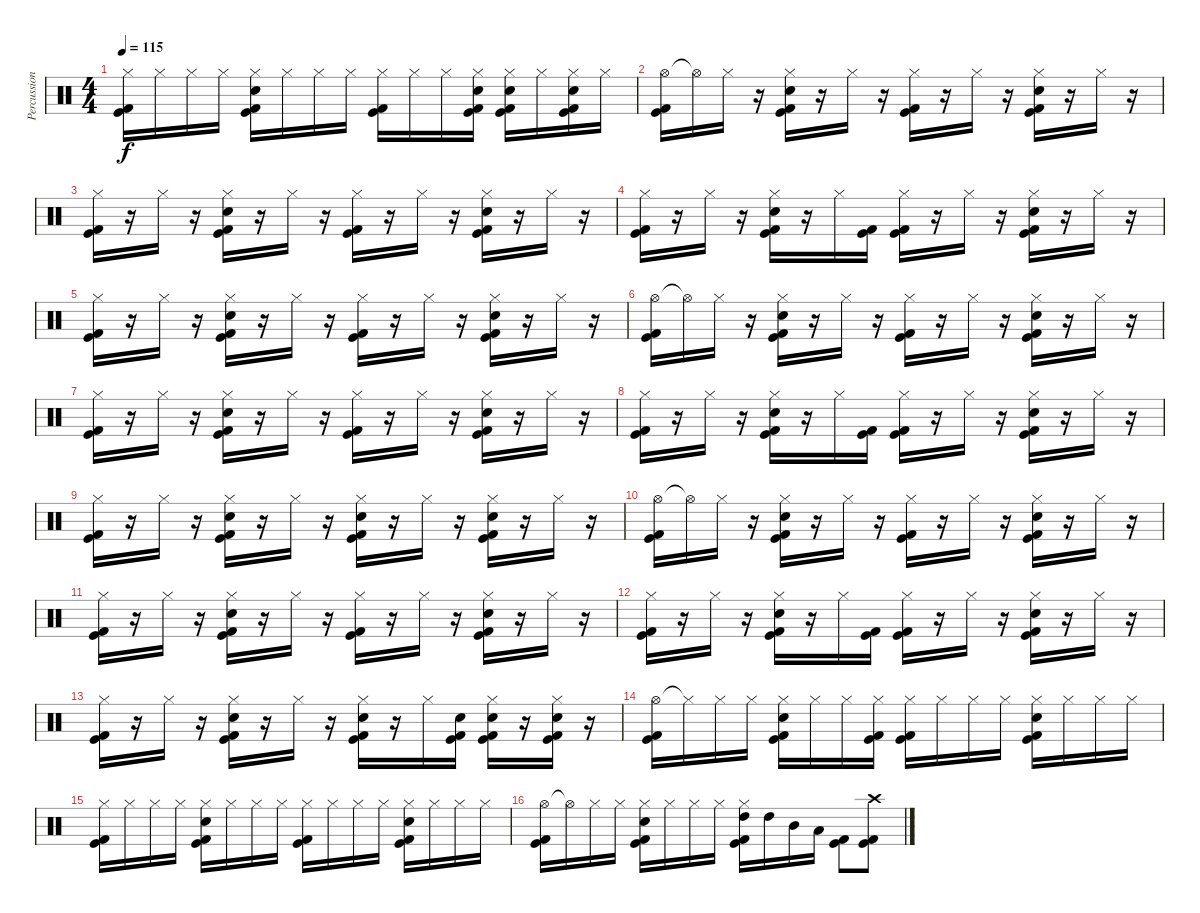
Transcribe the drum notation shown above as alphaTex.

\track ("Percussions" "Percussion") {instrument percussion}
\staff {score}
\articulation defaults
\ts (4 4)
\tempo 115
\clef neutral
\ks c
("Hi-Hat (closed)" "Kick (hit) 2" "Kick (hit)").16{dy f} "Hi-Hat (closed)".16 "Hi-Hat (closed)".16 "Hi-Hat (closed)".16 ("Hi-Hat (closed)" "Kick (hit) 2" "Snare (hit) 2" "Kick (hit)").16 "Hi-Hat (closed)".16 "Hi-Hat (closed)".16 "Hi-Hat (closed)".16 ("Hi-Hat (closed)" "Kick (hit) 2" "Kick (hit)").16 "Hi-Hat (closed)".16 "Hi-Hat (closed)".16 ("Hi-Hat (closed)" "Snare (hit) 2" "Kick (hit)" "Kick (hit) 2").16 ("Hi-Hat (closed)" "Snare (hit) 2" "Kick (hit)" "Kick (hit) 2").16 "Hi-Hat (closed)".16 ("Hi-Hat (closed)" "Snare (hit) 2" "Kick (hit)" "Kick (hit) 2").16 "Hi-Hat (closed)".16 |
("Hi-Hat (open)" "Kick (hit) 2" "Kick (hit)").16 "Hi-Hat (open)"{t}.16 "Hi-Hat (closed)".16 r.16 ("Hi-Hat (closed)" "Kick (hit) 2" "Snare (hit) 2" "Kick (hit)").16 r.16 "Hi-Hat (closed)".16 r.16 ("Hi-Hat (closed)" "Kick (hit) 2" "Kick (hit)").16 r.16 "Hi-Hat (closed)".16 r.16 ("Hi-Hat (closed)" "Kick (hit) 2" "Snare (hit) 2" "Kick (hit)").16 r.16 "Hi-Hat (closed)".16 r.16 |
("Hi-Hat (closed)" "Kick (hit) 2" "Kick (hit)").16 r.16 "Hi-Hat (closed)".16 r.16 ("Hi-Hat (closed)" "Kick (hit) 2" "Snare (hit) 2" "Kick (hit)").16 r.16 "Hi-Hat (closed)".16 r.16 ("Hi-Hat (closed)" "Kick (hit) 2" "Kick (hit)").16 r.16 "Hi-Hat (closed)".16 r.16 ("Hi-Hat (closed)" "Kick (hit) 2" "Snare (hit) 2" "Kick (hit)").16 r.16 "Hi-Hat (closed)".16 r.16 |
("Hi-Hat (closed)" "Kick (hit) 2" "Kick (hit)").16 r.16 "Hi-Hat (closed)".16 r.16 ("Hi-Hat (closed)" "Kick (hit) 2" "Snare (hit) 2" "Kick (hit)").16 r.16 "Hi-Hat (closed)".16 ("Kick (hit) 2" "Kick (hit)").16 ("Hi-Hat (closed)" "Kick (hit) 2" "Kick (hit)").16 r.16 "Hi-Hat (closed)".16 r.16 ("Hi-Hat (closed)" "Kick (hit) 2" "Snare (hit) 2" "Kick (hit)").16 r.16 "Hi-Hat (closed)".16 r.16 |
("Hi-Hat (closed)" "Kick (hit) 2" "Kick (hit)").16 r.16 "Hi-Hat (closed)".16 r.16 ("Hi-Hat (closed)" "Kick (hit) 2" "Snare (hit) 2" "Kick (hit)").16 r.16 "Hi-Hat (closed)".16 r.16 ("Hi-Hat (closed)" "Kick (hit) 2" "Kick (hit)").16 r.16 "Hi-Hat (closed)".16 r.16 ("Hi-Hat (closed)" "Kick (hit) 2" "Snare (hit) 2" "Kick (hit)").16 r.16 "Hi-Hat (closed)".16 r.16 |
("Hi-Hat (open)" "Kick (hit) 2" "Kick (hit)").16 "Hi-Hat (open)"{t}.16 "Hi-Hat (closed)".16 r.16 ("Hi-Hat (closed)" "Kick (hit) 2" "Snare (hit) 2" "Kick (hit)").16 r.16 "Hi-Hat (closed)".16 r.16 ("Hi-Hat (closed)" "Kick (hit) 2" "Kick (hit)").16 r.16 "Hi-Hat (closed)".16 r.16 ("Hi-Hat (closed)" "Kick (hit) 2" "Snare (hit) 2" "Kick (hit)").16 r.16 "Hi-Hat (closed)".16 r.16 |
("Hi-Hat (closed)" "Kick (hit) 2" "Kick (hit)").16 r.16 "Hi-Hat (closed)".16 r.16 ("Hi-Hat (closed)" "Kick (hit) 2" "Snare (hit) 2" "Kick (hit)").16 r.16 "Hi-Hat (closed)".16 r.16 ("Hi-Hat (closed)" "Kick (hit) 2" "Kick (hit)").16 r.16 "Hi-Hat (closed)".16 r.16 ("Hi-Hat (closed)" "Kick (hit) 2" "Snare (hit) 2" "Kick (hit)").16 r.16 "Hi-Hat (closed)".16 r.16 |
("Hi-Hat (closed)" "Kick (hit) 2" "Kick (hit)").16 r.16 "Hi-Hat (closed)".16 r.16 ("Hi-Hat (closed)" "Kick (hit) 2" "Snare (hit) 2" "Kick (hit)").16 r.16 "Hi-Hat (closed)".16 ("Kick (hit) 2" "Kick (hit)").16 ("Hi-Hat (closed)" "Kick (hit) 2" "Kick (hit)").16 r.16 "Hi-Hat (closed)".16 r.16 ("Hi-Hat (closed)" "Kick (hit) 2" "Snare (hit) 2" "Kick (hit)").16 r.16 "Hi-Hat (closed)".16 r.16 |
("Hi-Hat (closed)" "Kick (hit) 2" "Kick (hit)").16 r.16 "Hi-Hat (closed)".16 r.16 ("Hi-Hat (closed)" "Kick (hit) 2" "Snare (hit) 2" "Kick (hit)").16 r.16 "Hi-Hat (closed)".16 r.16 ("Hi-Hat (closed)" "Snare (hit) 2" "Kick (hit) 2" "Kick (hit)").16 r.16 "Hi-Hat (closed)".16 r.16 ("Hi-Hat (closed)" "Kick (hit) 2" "Snare (hit) 2" "Kick (hit)").16 r.16 "Hi-Hat (closed)".16 r.16 |
("Hi-Hat (open)" "Kick (hit) 2" "Kick (hit)").16 "Hi-Hat (open)"{t}.16 "Hi-Hat (closed)".16 r.16 ("Hi-Hat (closed)" "Kick (hit) 2" "Snare (hit) 2" "Kick (hit)").16 r.16 "Hi-Hat (closed)".16 r.16 ("Hi-Hat (closed)" "Kick (hit) 2" "Kick (hit)").16 r.16 "Hi-Hat (closed)".16 r.16 ("Hi-Hat (closed)" "Kick (hit) 2" "Snare (hit) 2" "Kick (hit)").16 r.16 "Hi-Hat (closed)".16 r.16 |
("Hi-Hat (closed)" "Kick (hit) 2" "Kick (hit)").16 r.16 "Hi-Hat (closed)".16 r.16 ("Hi-Hat (closed)" "Kick (hit) 2" "Snare (hit) 2" "Kick (hit)").16 r.16 "Hi-Hat (closed)".16 r.16 ("Hi-Hat (closed)" "Kick (hit) 2" "Kick (hit)").16 r.16 "Hi-Hat (closed)".16 r.16 ("Hi-Hat (closed)" "Kick (hit) 2" "Snare (hit) 2" "Kick (hit)").16 r.16 "Hi-Hat (closed)".16 r.16 |
("Hi-Hat (closed)" "Kick (hit) 2" "Kick (hit)").16 r.16 "Hi-Hat (closed)".16 r.16 ("Hi-Hat (closed)" "Kick (hit) 2" "Snare (hit) 2" "Kick (hit)").16 r.16 "Hi-Hat (closed)".16 ("Kick (hit) 2" "Kick (hit)").16 ("Hi-Hat (closed)" "Kick (hit) 2" "Kick (hit)").16 r.16 "Hi-Hat (closed)".16 r.16 ("Hi-Hat (closed)" "Kick (hit) 2" "Snare (hit) 2" "Kick (hit)").16 r.16 "Hi-Hat (closed)".16 r.16 |
("Hi-Hat (closed)" "Kick (hit) 2" "Kick (hit)").16 r.16 "Hi-Hat (closed)".16 r.16 ("Hi-Hat (closed)" "Kick (hit) 2" "Snare (hit) 2" "Kick (hit)").16 r.16 "Hi-Hat (closed)".16 r.16 ("Hi-Hat (closed)" "Snare (hit) 2" "Kick (hit) 2" "Kick (hit)").16 r.16 "Hi-Hat (closed)".16 ("Kick (hit) 2" "Snare (hit) 2" "Kick (hit)").16 ("Hi-Hat (closed)" "Kick (hit) 2" "Snare (hit) 2" "Kick (hit)").16 r.16 ("Hi-Hat (closed)" "Kick (hit) 2" "Snare (hit) 2" "Kick (hit)").16 r.16 |
("Hi-Hat (open)" "Kick (hit) 2" "Kick (hit)").16 "Hi-Hat (closed)"{t}.16 "Hi-Hat (closed)".16 "Hi-Hat (closed)".16 ("Hi-Hat (closed)" "Kick (hit) 2" "Snare (hit) 2" "Kick (hit)").16 "Hi-Hat (closed)".16 "Hi-Hat (closed)".16 ("Hi-Hat (closed)" "Kick (hit) 2" "Kick (hit)").16 ("Hi-Hat (closed)" "Kick (hit) 2" "Kick (hit)").16 "Hi-Hat (closed)".16 "Hi-Hat (closed)".16 "Hi-Hat (closed)".16 ("Hi-Hat (closed)" "Kick (hit) 2" "Snare (hit) 2" "Kick (hit)").16 "Hi-Hat (closed)".16 "Hi-Hat (closed)".16 "Hi-Hat (closed)".16 |
("Hi-Hat (closed)" "Kick (hit) 2" "Kick (hit)").16 "Hi-Hat (closed)".16 "Hi-Hat (closed)".16 "Hi-Hat (closed)".16 ("Hi-Hat (closed)" "Kick (hit) 2" "Snare (hit) 2" "Kick (hit)").16 "Hi-Hat (closed)".16 "Hi-Hat (closed)".16 "Hi-Hat (closed)".16 ("Hi-Hat (closed)" "Kick (hit) 2" "Kick (hit)").16 "Hi-Hat (closed)".16 "Hi-Hat (closed)".16 "Hi-Hat (closed)".16 ("Hi-Hat (closed)" "Kick (hit) 2" "Snare (hit) 2" "Kick (hit)").16 "Hi-Hat (closed)".16 "Hi-Hat (closed)".16 "Hi-Hat (closed)".16 |
("Hi-Hat (open)" "Kick (hit) 2" "Kick (hit)").16 "Hi-Hat (open)"{t}.16 "Hi-Hat (closed)".16 "Hi-Hat (closed)".16 ("Hi-Hat (closed)" "Kick (hit) 2" "Snare (hit) 2" "Kick (hit)").16 "Hi-Hat (closed)".16 "Hi-Hat (closed)".16 "Hi-Hat (closed)".16 ("Hi-Hat (closed)" "High Tom (hit)" "Kick (hit) 2" "Kick (hit)").16 "High Tom (hit)".16 "Mid Tom (hit)".16 "Low Tom (hit)".16 ("Kick (hit) 2" "Kick (hit)").8 ("Crash high (hit)" "Kick (hit) 2" "Kick (hit)").8
